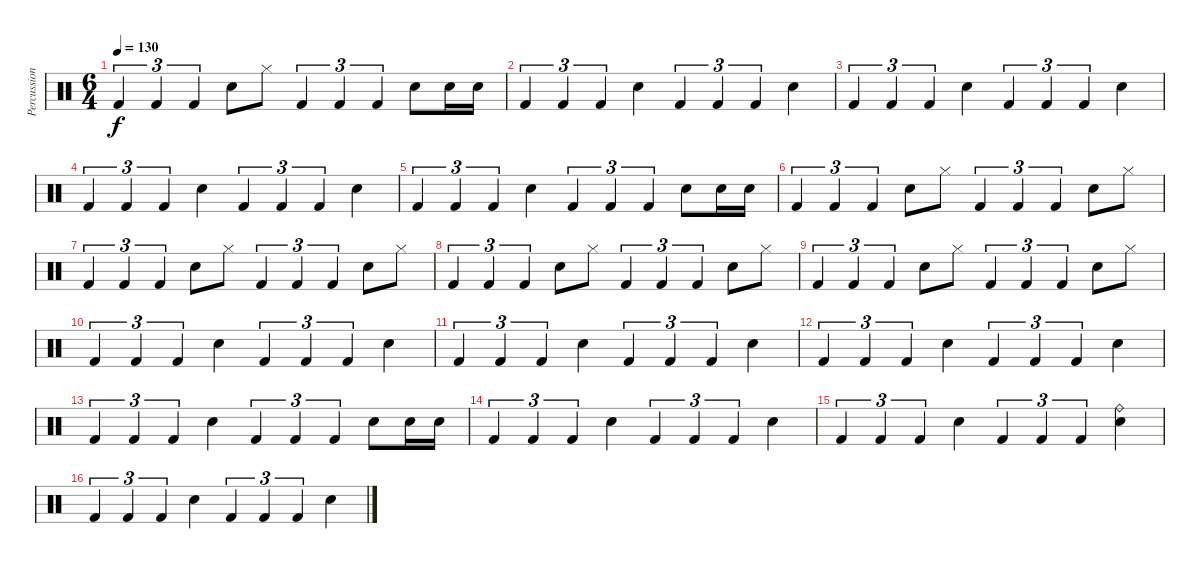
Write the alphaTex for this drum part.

\track ("Percussion" "Percussion") {instrument percussion}
\staff {score}
\articulation defaults
\ts (6 4)
\tempo 130
\clef neutral
\ks c "Kick (hit) 2".4{tu (3 2) dy f} "Kick (hit) 2".4{tu (3 2)} "Kick (hit) 2".4{tu (3 2)} "Electric Snare (hit)".8 "Hi-Hat (closed)".8 "Kick (hit) 2".4{tu (3 2)} "Kick (hit) 2".4{tu (3 2)} "Kick (hit) 2".4{tu (3 2)} "Electric Snare (hit)".8 "Electric Snare (hit)".16 "Electric Snare (hit)".16
|
"Kick (hit) 2".4{tu (3 2)} "Kick (hit) 2".4{tu (3 2)} "Kick (hit) 2".4{tu (3 2)} "Electric Snare (hit)".4 "Kick (hit) 2".4{tu (3 2)} "Kick (hit) 2".4{tu (3 2)} "Kick (hit) 2".4{tu (3 2)} "Electric Snare (hit)".4 |
"Kick (hit) 2".4{tu (3 2)} "Kick (hit) 2".4{tu (3 2)} "Kick (hit) 2".4{tu (3 2)} "Electric Snare (hit)".4 "Kick (hit) 2".4{tu (3 2)} "Kick (hit) 2".4{tu (3 2)} "Kick (hit) 2".4{tu (3 2)} "Electric Snare (hit)".4 |
"Kick (hit) 2".4{tu (3 2)} "Kick (hit) 2".4{tu (3 2)} "Kick (hit) 2".4{tu (3 2)} "Electric Snare (hit)".4 "Kick (hit) 2".4{tu (3 2)} "Kick (hit) 2".4{tu (3 2)} "Kick (hit) 2".4{tu (3 2)} "Electric Snare (hit)".4 |
"Kick (hit) 2".4{tu (3 2)} "Kick (hit) 2".4{tu (3 2)} "Kick (hit) 2".4{tu (3 2)} "Electric Snare (hit)".4 "Kick (hit) 2".4{tu (3 2)} "Kick (hit) 2".4{tu (3 2)} "Kick (hit) 2".4{tu (3 2)} "Electric Snare (hit)".8 "Electric Snare (hit)".16 "Electric Snare (hit)".16 |
"Kick (hit) 2".4{tu (3 2)} "Kick (hit) 2".4{tu (3 2)} "Kick (hit) 2".4{tu (3 2)} "Electric Snare (hit)".8 "Hi-Hat (closed)".8 "Kick (hit) 2".4{tu (3 2)} "Kick (hit) 2".4{tu (3 2)} "Kick (hit) 2".4{tu (3 2)} "Electric Snare (hit)".8 "Hi-Hat (closed)".8 |
"Kick (hit) 2".4{tu (3 2)} "Kick (hit) 2".4{tu (3 2)} "Kick (hit) 2".4{tu (3 2)} "Electric Snare (hit)".8 "Hi-Hat (closed)".8 "Kick (hit) 2".4{tu (3 2)} "Kick (hit) 2".4{tu (3 2)} "Kick (hit) 2".4{tu (3 2)} "Electric Snare (hit)".8 "Hi-Hat (closed)".8 |
"Kick (hit) 2".4{tu (3 2)} "Kick (hit) 2".4{tu (3 2)} "Kick (hit) 2".4{tu (3 2)} "Electric Snare (hit)".8 "Hi-Hat (closed)".8 "Kick (hit) 2".4{tu (3 2)} "Kick (hit) 2".4{tu (3 2)} "Kick (hit) 2".4{tu (3 2)} "Electric Snare (hit)".8 "Hi-Hat (closed)".8 |
"Kick (hit) 2".4{tu (3 2)} "Kick (hit) 2".4{tu (3 2)} "Kick (hit) 2".4{tu (3 2)} "Electric Snare (hit)".8 "Hi-Hat (closed)".8 "Kick (hit) 2".4{tu (3 2)} "Kick (hit) 2".4{tu (3 2)} "Kick (hit) 2".4{tu (3 2)} "Electric Snare (hit)".8 "Hi-Hat (closed)".8 |
"Kick (hit) 2".4{tu (3 2)} "Kick (hit) 2".4{tu (3 2)} "Kick (hit) 2".4{tu (3 2)} "Electric Snare (hit)".4 "Kick (hit) 2".4{tu (3 2)} "Kick (hit) 2".4{tu (3 2)} "Kick (hit) 2".4{tu (3 2)} "Electric Snare (hit)".4 |
"Kick (hit) 2".4{tu (3 2)} "Kick (hit) 2".4{tu (3 2)} "Kick (hit) 2".4{tu (3 2)} "Electric Snare (hit)".4 "Kick (hit) 2".4{tu (3 2)} "Kick (hit) 2".4{tu (3 2)} "Kick (hit) 2".4{tu (3 2)} "Electric Snare (hit)".4 |
"Kick (hit) 2".4{tu (3 2)} "Kick (hit) 2".4{tu (3 2)} "Kick (hit) 2".4{tu (3 2)} "Electric Snare (hit)".4 "Kick (hit) 2".4{tu (3 2)} "Kick (hit) 2".4{tu (3 2)} "Kick (hit) 2".4{tu (3 2)} "Electric Snare (hit)".4 |
"Kick (hit) 2".4{tu (3 2)} "Kick (hit) 2".4{tu (3 2)} "Kick (hit) 2".4{tu (3 2)} "Electric Snare (hit)".4 "Kick (hit) 2".4{tu (3 2)} "Kick (hit) 2".4{tu (3 2)} "Kick (hit) 2".4{tu (3 2)} "Electric Snare (hit)".8 "Electric Snare (hit)".16 "Electric Snare (hit)".16 |
"Kick (hit) 2".4{tu (3 2)} "Kick (hit) 2".4{tu (3 2)} "Kick (hit) 2".4{tu (3 2)} "Electric Snare (hit)".4 "Kick (hit) 2".4{tu (3 2)} "Kick (hit) 2".4{tu (3 2)} "Kick (hit) 2".4{tu (3 2)} "Electric Snare (hit)".4 |
"Kick (hit) 2".4{tu (3 2)} "Kick (hit) 2".4{tu (3 2)} "Kick (hit) 2".4{tu (3 2)} "Electric Snare (hit)".4 "Kick (hit) 2".4{tu (3 2)} "Kick (hit) 2".4{tu (3 2)} "Kick (hit) 2".4{tu (3 2)} ("Ride (bell)" "Electric Snare (hit)").4 |
"Kick (hit) 2".4{tu (3 2)} "Kick (hit) 2".4{tu (3 2)} "Kick (hit) 2".4{tu (3 2)} "Electric Snare (hit)".4 "Kick (hit) 2".4{tu (3 2)} "Kick (hit) 2".4{tu (3 2)} "Kick (hit) 2".4{tu (3 2)} "Electric Snare (hit)".4
